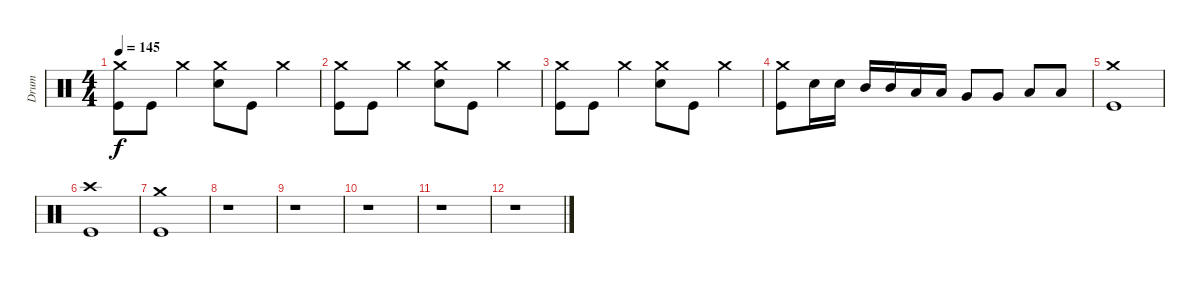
\track ("Drum" "Drum") {instrument percussion}
\staff {score}
\articulation defaults
\ts (4 4)
\tempo 145
\clef neutral
\ks c
("Kick (hit)" "Crash medium (hit)").8{dy f} "Kick (hit)".8 "Crash medium (hit)".4 ("Electric Snare (hit)" "Crash medium (hit)").8 "Kick (hit)".8 "Crash medium (hit)".4 |
("Kick (hit)" "Crash medium (hit)").8 "Kick (hit)".8 "Crash medium (hit)".4 ("Electric Snare (hit)" "Crash medium (hit)").8 "Kick (hit)".8 "Crash medium (hit)".4 |
("Kick (hit)" "Crash medium (hit)").8 "Kick (hit)".8 "Crash medium (hit)".4 ("Electric Snare (hit)" "Crash medium (hit)").8 "Kick (hit)".8 "Crash medium (hit)".4 |
("Kick (hit)" "Crash medium (hit)").8 "Electric Snare (hit)".16 "Electric Snare (hit)".16 "Mid Tom (hit)".16 "Mid Tom (hit)".16 "Low Tom (hit)".16 "Low Tom (hit)".16 "Very Low Tom (hit)".8 "Very Low Tom (hit)".8 "Low Floor Tom (hit)".8 "Low Floor Tom (hit)".8 |
("Kick (hit)" "Crash medium (hit)").1 |
("Kick (hit)" "Crash high (hit)").1 |
("Kick (hit)" "Crash medium (hit)").1 |
r.1 |
r.1 |
r.1 |
r.1 |
r.1
